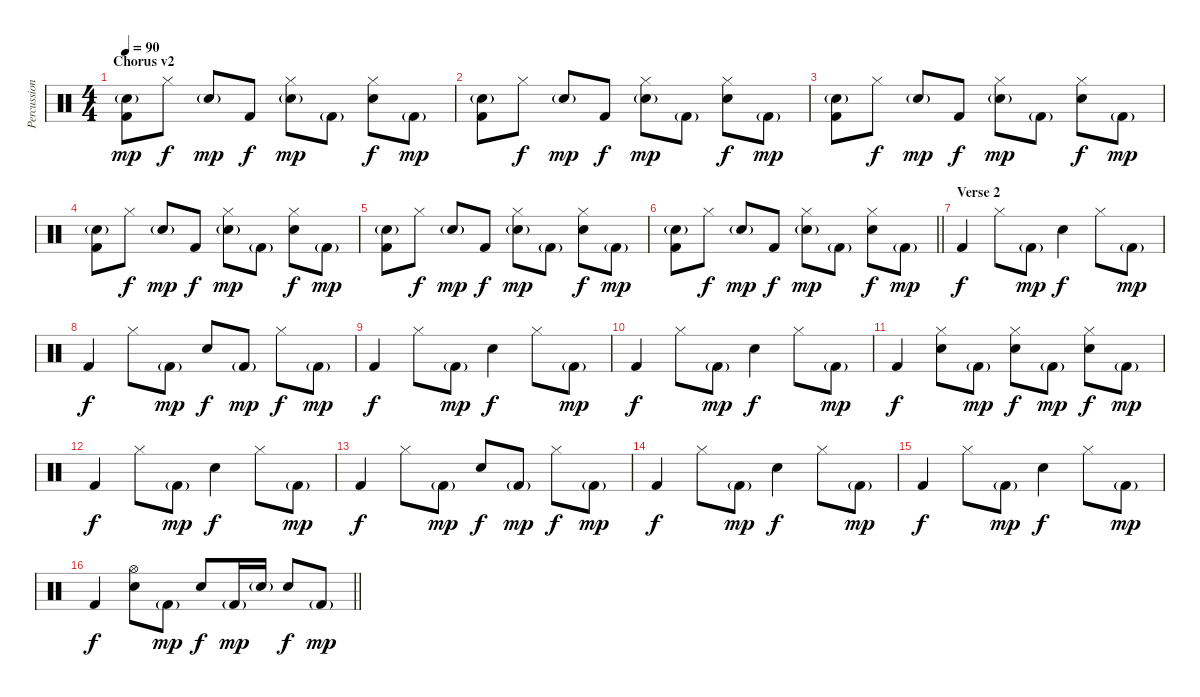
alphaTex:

\track ("Percussion" "Percussion") {instrument percussion}
\staff {score}
\articulation defaults
\ts (4 4)
\section ("" "Chorus v2")
\tempo 90
\clef neutral
\ks c
("Snare (hit) 2"{g} "Kick (hit) 2").8{dy mp} "Hi-Hat (closed)".8{dy f} "Snare (hit) 2"{g}.8{dy mp} "Kick (hit) 2".8{dy f} ("Hi-Hat (closed)" "Snare (hit) 2"{g}).8{dy mp} "Kick (hit) 2"{g}.8 ("Hi-Hat (closed)" "Snare (hit) 2").8{dy f} "Kick (hit) 2"{g}.8{dy mp} |
("Snare (hit) 2"{g} "Kick (hit) 2").8 "Hi-Hat (closed)".8{dy f} "Snare (hit) 2"{g}.8{dy mp} "Kick (hit) 2".8{dy f} ("Hi-Hat (closed)" "Snare (hit) 2"{g}).8{dy mp} "Kick (hit) 2"{g}.8 ("Hi-Hat (closed)" "Snare (hit) 2").8{dy f} "Kick (hit) 2"{g}.8{dy mp} |
("Snare (hit) 2"{g} "Kick (hit) 2").8 "Hi-Hat (closed)".8{dy f} "Snare (hit) 2"{g}.8{dy mp} "Kick (hit) 2".8{dy f} ("Hi-Hat (closed)" "Snare (hit) 2"{g}).8{dy mp} "Kick (hit) 2"{g}.8 ("Hi-Hat (closed)" "Snare (hit) 2").8{dy f} "Kick (hit) 2"{g}.8{dy mp} |
("Snare (hit) 2"{g} "Kick (hit) 2").8 "Hi-Hat (closed)".8{dy f} "Snare (hit) 2"{g}.8{dy mp} "Kick (hit) 2".8{dy f} ("Hi-Hat (closed)" "Snare (hit) 2"{g}).8{dy mp} "Kick (hit) 2"{g}.8 ("Hi-Hat (closed)" "Snare (hit) 2").8{dy f} "Kick (hit) 2"{g}.8{dy mp} |
("Snare (hit) 2"{g} "Kick (hit) 2").8 "Hi-Hat (closed)".8{dy f} "Snare (hit) 2"{g}.8{dy mp} "Kick (hit) 2".8{dy f} ("Hi-Hat (closed)" "Snare (hit) 2"{g}).8{dy mp} "Kick (hit) 2"{g}.8 ("Hi-Hat (closed)" "Snare (hit) 2").8{dy f} "Kick (hit) 2"{g}.8{dy mp} |
\barLineRight lightlight
("Snare (hit) 2"{g} "Kick (hit) 2").8 "Hi-Hat (closed)".8{dy f} "Snare (hit) 2"{g}.8{dy mp} "Kick (hit) 2".8{dy f} ("Hi-Hat (closed)" "Snare (hit) 2"{g}).8{dy mp} "Kick (hit) 2"{g}.8 ("Hi-Hat (closed)" "Snare (hit) 2").8{dy f} "Kick (hit) 2"{g}.8{dy mp} |
\section ("" "Verse 2")
"Kick (hit) 2".4{dy f} "Hi-Hat (closed)".8 "Kick (hit) 2"{g}.8{dy mp} "Snare (hit) 2".4{dy f} "Hi-Hat (closed)".8 "Kick (hit) 2"{g}.8{dy mp} |
"Kick (hit) 2".4{dy f} "Hi-Hat (closed)".8 "Kick (hit) 2"{g}.8{dy mp} "Snare (hit) 2".8{dy f} "Kick (hit) 2"{g}.8{dy mp} "Hi-Hat (closed)".8{dy f} "Kick (hit) 2"{g}.8{dy mp} |
"Kick (hit) 2".4{dy f} "Hi-Hat (closed)".8 "Kick (hit) 2"{g}.8{dy mp} "Snare (hit) 2".4{dy f} "Hi-Hat (closed)".8 "Kick (hit) 2"{g}.8{dy mp} |
"Kick (hit) 2".4{dy f} "Hi-Hat (closed)".8 "Kick (hit) 2"{g}.8{dy mp} "Snare (hit) 2".4{dy f} "Hi-Hat (closed)".8 "Kick (hit) 2"{g}.8{dy mp} |
"Kick (hit) 2".4{dy f} ("Hi-Hat (closed)" "Snare (hit) 2").8 "Kick (hit) 2"{g}.8{dy mp} ("Hi-Hat (closed)" "Snare (hit) 2").8{dy f} "Kick (hit) 2"{g}.8{dy mp} ("Hi-Hat (closed)" "Snare (hit) 2").8{dy f} "Kick (hit) 2"{g}.8{dy mp} |
"Kick (hit) 2".4{dy f} "Hi-Hat (closed)".8 "Kick (hit) 2"{g}.8{dy mp} "Snare (hit) 2".4{dy f} "Hi-Hat (closed)".8 "Kick (hit) 2"{g}.8{dy mp} |
"Kick (hit) 2".4{dy f} "Hi-Hat (closed)".8 "Kick (hit) 2"{g}.8{dy mp} "Snare (hit) 2".8{dy f} "Kick (hit) 2"{g}.8{dy mp} "Hi-Hat (closed)".8{dy f} "Kick (hit) 2"{g}.8{dy mp} |
"Kick (hit) 2".4{dy f} "Hi-Hat (closed)".8 "Kick (hit) 2"{g}.8{dy mp} "Snare (hit) 2".4{dy f} "Hi-Hat (closed)".8 "Kick (hit) 2"{g}.8{dy mp} |
"Kick (hit) 2".4{dy f} "Hi-Hat (closed)".8 "Kick (hit) 2"{g}.8{dy mp} "Snare (hit) 2".4{dy f} "Hi-Hat (closed)".8 "Kick (hit) 2"{g}.8{dy mp} |
\barLineRight lightlight "Kick (hit) 2".4{dy f}
("Hi-Hat (open)" "Snare (hit) 2").8 "Kick (hit) 2"{g}.8{dy mp} "Snare (hit) 2".8{dy f} "Kick (hit) 2"{g}.16{dy mp} "Snare (hit) 2"{g}.16 "Snare (hit) 2".8{dy f} "Kick (hit) 2"{g}.8{dy mp}
